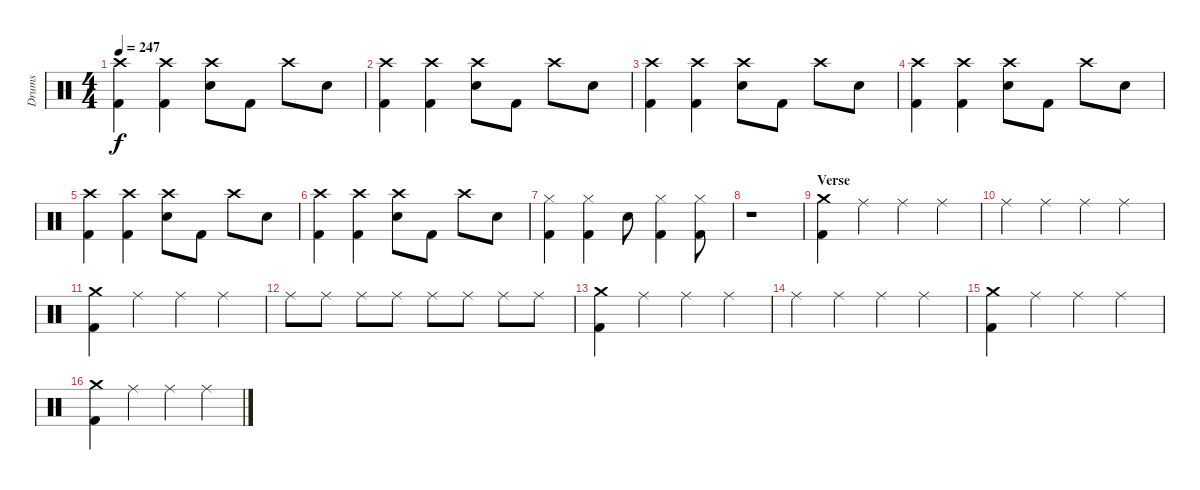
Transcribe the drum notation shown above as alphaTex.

\track ("Drums" "Drums") {instrument percussion}
\staff {score}
\articulation defaults
\ts (4 4)
\tempo 247
\clef neutral
\ks c
("Crash high (hit)" "Kick (hit) 2").4{dy f} ("Crash high (hit)" "Kick (hit) 2").4 ("Crash high (hit)" "Electric Snare (hit)").8 "Kick (hit) 2".8 "Crash high (hit)".8 "Electric Snare (hit)".8 |
("Crash high (hit)" "Kick (hit) 2").4 ("Crash high (hit)" "Kick (hit) 2").4 ("Crash high (hit)" "Electric Snare (hit)").8 "Kick (hit) 2".8 "Crash high (hit)".8 "Electric Snare (hit)".8 |
("Crash high (hit)" "Kick (hit) 2").4 ("Crash high (hit)" "Kick (hit) 2").4 ("Crash high (hit)" "Electric Snare (hit)").8 "Kick (hit) 2".8 "Crash high (hit)".8 "Electric Snare (hit)".8 |
("Crash high (hit)" "Kick (hit) 2").4 ("Crash high (hit)" "Kick (hit) 2").4 ("Crash high (hit)" "Electric Snare (hit)").8 "Kick (hit) 2".8 "Crash high (hit)".8 "Electric Snare (hit)".8 |
("Crash high (hit)" "Kick (hit) 2").4 ("Crash high (hit)" "Kick (hit) 2").4 ("Crash high (hit)" "Electric Snare (hit)").8 "Kick (hit) 2".8 "Crash high (hit)".8 "Electric Snare (hit)".8 |
("Crash high (hit)" "Kick (hit) 2").4 ("Crash high (hit)" "Kick (hit) 2").4 ("Crash high (hit)" "Electric Snare (hit)").8 "Kick (hit) 2".8 "Crash high (hit)".8 "Electric Snare (hit)".8 |
("Hi-Hat (closed)" "Kick (hit) 2").4 ("Hi-Hat (closed)" "Kick (hit) 2").4 "Electric Snare (hit)".8 ("Hi-Hat (closed)" "Kick (hit) 2").4 ("Hi-Hat (closed)" "Kick (hit) 2").8 |
r.1 |
\section ("" "Verse")
("Crash medium (hit)" "Kick (hit) 2").4 "Ride (middle)".4 "Ride (middle)".4 "Ride (middle)".4 |
"Ride (middle)".4 "Ride (middle)".4 "Ride (middle)".4 "Ride (middle)".4 |
("Crash medium (hit)" "Kick (hit) 2").4 "Ride (middle)".4 "Ride (middle)".4 "Ride (middle)".4 |
"Ride (middle)".8 "Ride (middle)".8 "Ride (middle)".8 "Ride (middle)".8 "Ride (middle)".8 "Ride (middle)".8 "Ride (middle)".8 "Ride (middle)".8 |
("Crash medium (hit)" "Kick (hit) 2").4 "Ride (middle)".4 "Ride (middle)".4 "Ride (middle)".4 |
"Ride (middle)".4 "Ride (middle)".4 "Ride (middle)".4 "Ride (middle)".4 |
("Crash medium (hit)" "Kick (hit) 2").4 "Ride (middle)".4 "Ride (middle)".4 "Ride (middle)".4 |
("Crash medium (hit)" "Kick (hit) 2").4 "Ride (middle)".4 "Ride (middle)".4 "Ride (middle)".4
